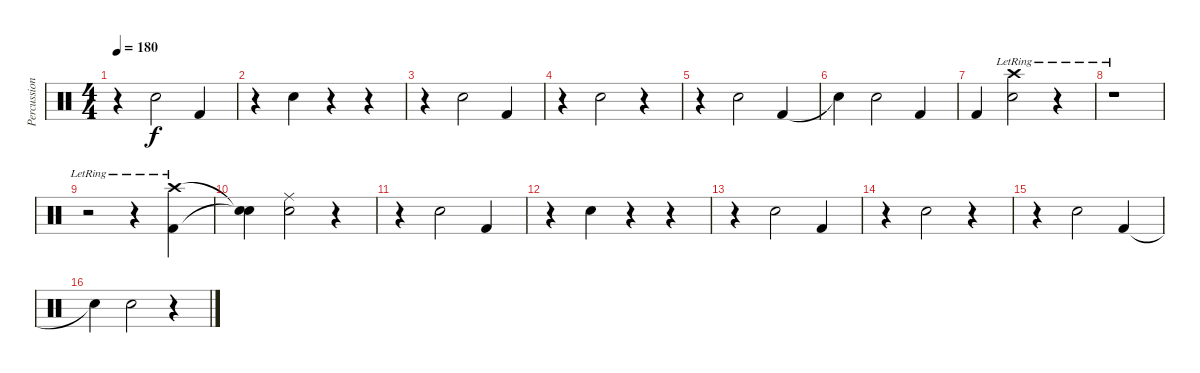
\track ("Percussion" "Percussion") {instrument percussion}
\staff {score}
\articulation defaults
\ts (4 4)
\tempo 180
\clef neutral
\ks c
r.4{dy f} "Electric Snare (hit)".2 "Kick (hit) 2".4 |
r.4 "Electric Snare (hit)".4 r.4 r.4 |
r.4 "Electric Snare (hit)".2 "Kick (hit) 2".4 |
r.4 "Electric Snare (hit)".2 r.4 |
r.4 "Electric Snare (hit)".2 "Kick (hit) 2".4 |
"Snare (hit)"{t}.4 "Electric Snare (hit)".2 "Kick (hit) 2".4 |
"Kick (hit) 2".4 ("Electric Snare (hit)" "Crash high (hit)"{lr}).2 r.4 |
r.1 |
r.2 r.4 ("Kick (hit) 2" "Crash high (hit)"{lr}).4 |
("Snare (hit)"{t} "Snare (hit)"{t}).4 ("Electric Snare (hit)" "Ride (middle)").2 r.4 |
r.4 "Electric Snare (hit)".2 "Kick (hit) 2".4 |
r.4 "Electric Snare (hit)".4 r.4 r.4 |
r.4 "Electric Snare (hit)".2 "Kick (hit) 2".4 |
r.4 "Electric Snare (hit)".2 r.4 |
r.4 "Electric Snare (hit)".2 "Kick (hit) 2".4 |
"Snare (hit)"{t}.4 "Electric Snare (hit)".2 r.4
